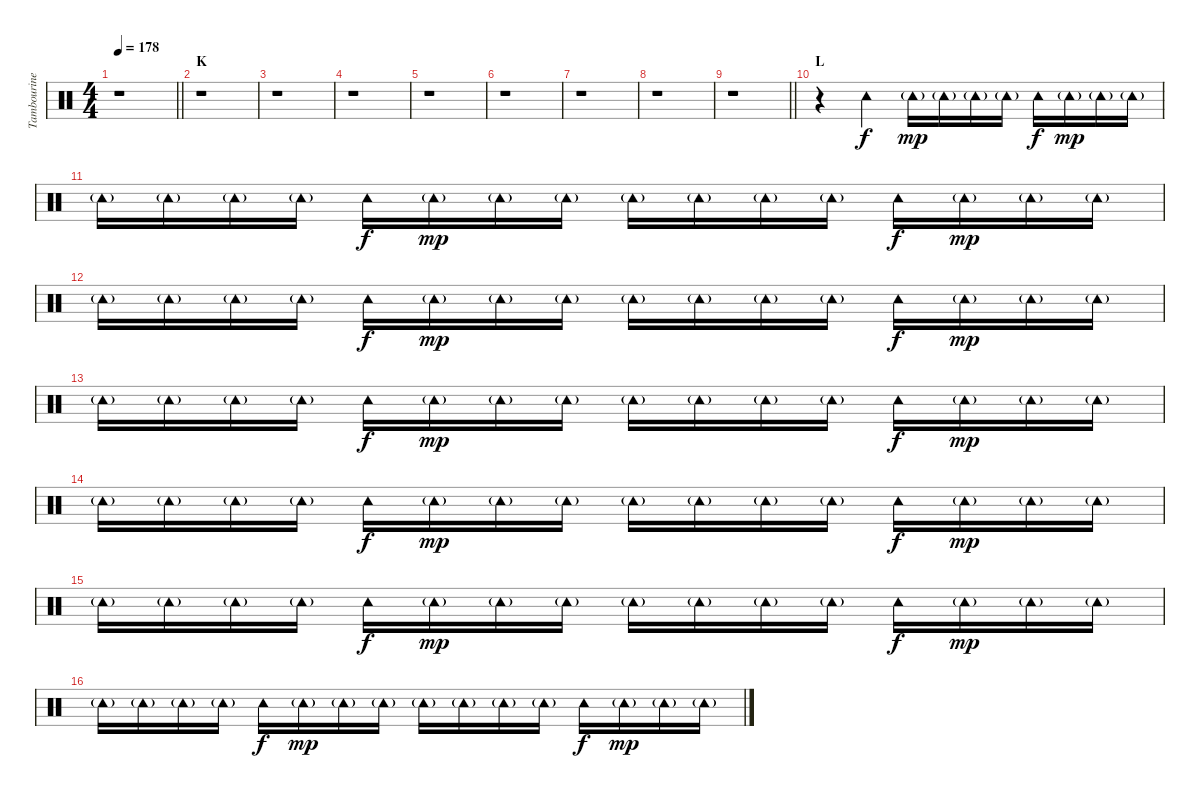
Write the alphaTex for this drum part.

\track ("Tambourine" "Tambourine") {instrument percussion}
\staff {score}
\articulation defaults
\ts (4 4)
\tempo 178
\clef neutral
\barLineRight lightlight
\ks c
r.1{dy mp} |
\section ("" "K")
r.1 |
r.1 |
r.1 |
r.1 |
r.1 |
r.1 |
r.1 |
\barLineRight lightlight
r.1 |
\section ("" "L")
r.4 "Tambourine (hit)".4{dy f} "Tambourine (hit)"{g}.16{dy mp} "Tambourine (hit)"{g}.16 "Tambourine (hit)"{g}.16 "Tambourine (hit)"{g}.16 "Tambourine (hit)".16{dy f} "Tambourine (hit)"{g}.16{dy mp} "Tambourine (hit)"{g}.16 "Tambourine (hit)"{g}.16 |
"Tambourine (hit)"{g}.16 "Tambourine (hit)"{g}.16 "Tambourine (hit)"{g}.16 "Tambourine (hit)"{g}.16 "Tambourine (hit)".16{dy f} "Tambourine (hit)"{g}.16{dy mp} "Tambourine (hit)"{g}.16 "Tambourine (hit)"{g}.16 "Tambourine (hit)"{g}.16 "Tambourine (hit)"{g}.16 "Tambourine (hit)"{g}.16 "Tambourine (hit)"{g}.16 "Tambourine (hit)".16{dy f} "Tambourine (hit)"{g}.16{dy mp} "Tambourine (hit)"{g}.16 "Tambourine (hit)"{g}.16 |
"Tambourine (hit)"{g}.16 "Tambourine (hit)"{g}.16 "Tambourine (hit)"{g}.16 "Tambourine (hit)"{g}.16 "Tambourine (hit)".16{dy f} "Tambourine (hit)"{g}.16{dy mp} "Tambourine (hit)"{g}.16 "Tambourine (hit)"{g}.16 "Tambourine (hit)"{g}.16 "Tambourine (hit)"{g}.16 "Tambourine (hit)"{g}.16 "Tambourine (hit)"{g}.16 "Tambourine (hit)".16{dy f} "Tambourine (hit)"{g}.16{dy mp} "Tambourine (hit)"{g}.16 "Tambourine (hit)"{g}.16 |
"Tambourine (hit)"{g}.16 "Tambourine (hit)"{g}.16 "Tambourine (hit)"{g}.16 "Tambourine (hit)"{g}.16 "Tambourine (hit)".16{dy f} "Tambourine (hit)"{g}.16{dy mp} "Tambourine (hit)"{g}.16 "Tambourine (hit)"{g}.16 "Tambourine (hit)"{g}.16 "Tambourine (hit)"{g}.16 "Tambourine (hit)"{g}.16 "Tambourine (hit)"{g}.16 "Tambourine (hit)".16{dy f} "Tambourine (hit)"{g}.16{dy mp} "Tambourine (hit)"{g}.16 "Tambourine (hit)"{g}.16 |
"Tambourine (hit)"{g}.16 "Tambourine (hit)"{g}.16 "Tambourine (hit)"{g}.16 "Tambourine (hit)"{g}.16 "Tambourine (hit)".16{dy f} "Tambourine (hit)"{g}.16{dy mp} "Tambourine (hit)"{g}.16 "Tambourine (hit)"{g}.16 "Tambourine (hit)"{g}.16 "Tambourine (hit)"{g}.16 "Tambourine (hit)"{g}.16 "Tambourine (hit)"{g}.16 "Tambourine (hit)".16{dy f} "Tambourine (hit)"{g}.16{dy mp} "Tambourine (hit)"{g}.16 "Tambourine (hit)"{g}.16 |
"Tambourine (hit)"{g}.16 "Tambourine (hit)"{g}.16 "Tambourine (hit)"{g}.16 "Tambourine (hit)"{g}.16 "Tambourine (hit)".16{dy f} "Tambourine (hit)"{g}.16{dy mp} "Tambourine (hit)"{g}.16 "Tambourine (hit)"{g}.16 "Tambourine (hit)"{g}.16 "Tambourine (hit)"{g}.16 "Tambourine (hit)"{g}.16 "Tambourine (hit)"{g}.16 "Tambourine (hit)".16{dy f} "Tambourine (hit)"{g}.16{dy mp} "Tambourine (hit)"{g}.16 "Tambourine (hit)"{g}.16 |
"Tambourine (hit)"{g}.16 "Tambourine (hit)"{g}.16 "Tambourine (hit)"{g}.16 "Tambourine (hit)"{g}.16 "Tambourine (hit)".16{dy f} "Tambourine (hit)"{g}.16{dy mp} "Tambourine (hit)"{g}.16 "Tambourine (hit)"{g}.16 "Tambourine (hit)"{g}.16 "Tambourine (hit)"{g}.16 "Tambourine (hit)"{g}.16 "Tambourine (hit)"{g}.16 "Tambourine (hit)".16{dy f} "Tambourine (hit)"{g}.16{dy mp} "Tambourine (hit)"{g}.16 "Tambourine (hit)"{g}.16
